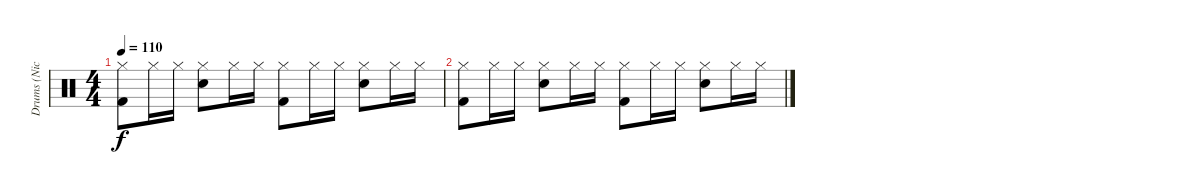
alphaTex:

\track ("Drums (Nicko)" "Drums (Nic") {instrument percussion}
\staff {score}
\articulation defaults
\ts (4 4)
\tempo 110
\clef neutral
\ks c
("Hi-Hat (closed)" "Kick (hit) 2").8{dy f} "Hi-Hat (closed)".16 "Hi-Hat (closed)".16 ("Hi-Hat (closed)" "Snare (hit) 2").8 "Hi-Hat (closed)".16 "Hi-Hat (closed)".16 ("Hi-Hat (closed)" "Kick (hit) 2").8 "Hi-Hat (closed)".16 "Hi-Hat (closed)".16 ("Hi-Hat (closed)" "Snare (hit) 2").8 "Hi-Hat (closed)".16 "Hi-Hat (closed)".16 |
("Hi-Hat (closed)" "Kick (hit) 2").8 "Hi-Hat (closed)".16 "Hi-Hat (closed)".16 ("Hi-Hat (closed)" "Snare (hit) 2").8 "Hi-Hat (closed)".16 "Hi-Hat (closed)".16 ("Hi-Hat (closed)" "Kick (hit) 2").8 "Hi-Hat (closed)".16 "Hi-Hat (closed)".16 ("Hi-Hat (closed)" "Snare (hit) 2").8 "Hi-Hat (closed)".16 "Hi-Hat (closed)".16
